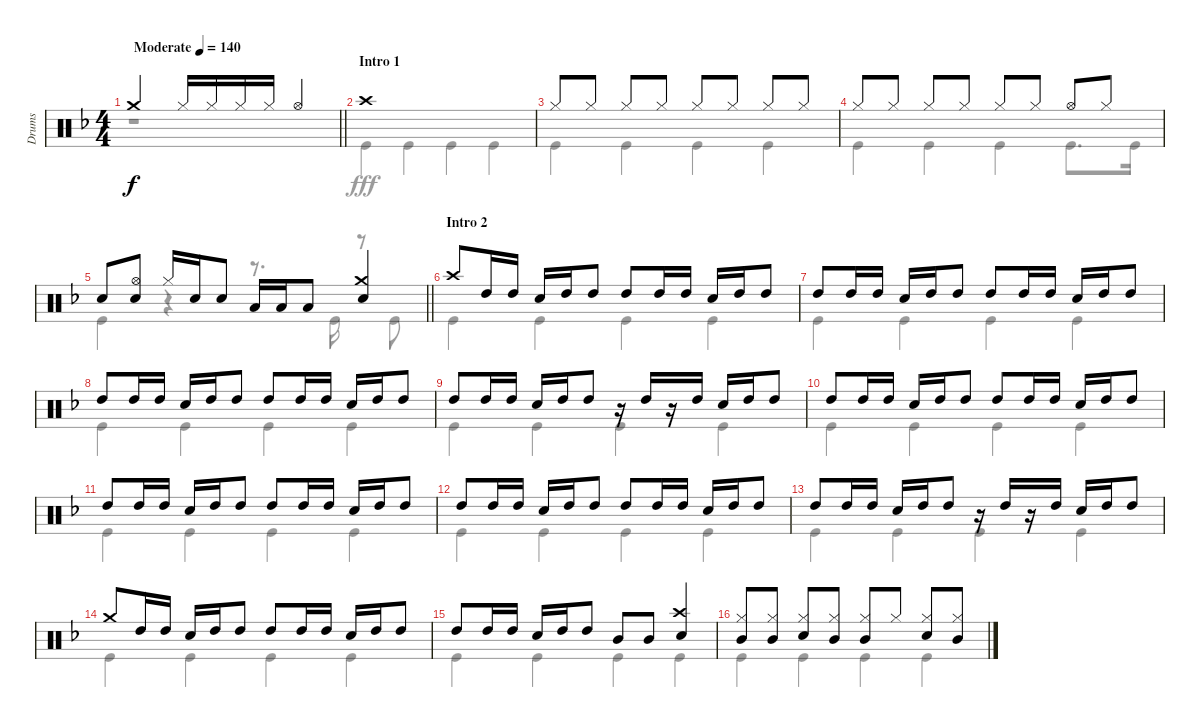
\track ("Drums" "Drums") {instrument percussion}
\staff {score}
\articulation defaults
\voice
\ts (4 4)
\tempo (140 "Moderate")
\clef neutral
\barLineRight lightlight
\ks f "Crash medium (hit)".2{dy f} "Hi-Hat (closed)".16 "Hi-Hat (closed)".16 "Hi-Hat (closed)".16 "Hi-Hat (closed)".16 "Hi-Hat (open)".4
|
\section ("" "Intro 1")
"Crash high (hit)".1 |
"Hi-Hat (closed)".8 "Hi-Hat (closed)".8 "Hi-Hat (closed)".8 "Hi-Hat (closed)".8 "Hi-Hat (closed)".8 "Hi-Hat (closed)".8 "Hi-Hat (closed)".8 "Hi-Hat (closed)".8 |
"Hi-Hat (closed)".8 "Hi-Hat (closed)".8 "Hi-Hat (closed)".8 "Hi-Hat (closed)".8 "Hi-Hat (closed)".8 "Hi-Hat (closed)".8 "Hi-Hat (open)".8 "Hi-Hat (closed)".8 |
\barLineRight lightlight "Snare (hit) 2".8
("Hi-Hat (open)" "Snare (hit) 2").8 "Hi-Hat (closed)".16 "Snare (hit) 2".16 "Snare (hit) 2".8 "Low Tom (hit)".16 "Low Tom (hit)".16 "Low Tom (hit)".8 ("Crash medium (hit)" "Snare (hit) 2").4 |
\section ("" "Intro 2")
"Crash high (hit)".8 "High Tom (hit)".16 "High Tom (hit)".16 "Snare (hit) 2".16 "High Tom (hit)".16 "High Tom (hit)".8 "High Tom (hit)".8 "High Tom (hit)".16 "High Tom (hit)".16 "Snare (hit) 2".16 "High Tom (hit)".16 "High Tom (hit)".8 |
"High Tom (hit)".8 "High Tom (hit)".16 "High Tom (hit)".16 "Snare (hit) 2".16 "High Tom (hit)".16 "High Tom (hit)".8 "High Tom (hit)".8 "High Tom (hit)".16 "High Tom (hit)".16 "Snare (hit) 2".16 "High Tom (hit)".16 "High Tom (hit)".8 |
"High Tom (hit)".8 "High Tom (hit)".16 "High Tom (hit)".16 "Snare (hit) 2".16 "High Tom (hit)".16 "High Tom (hit)".8 "High Tom (hit)".8 "High Tom (hit)".16 "High Tom (hit)".16 "Snare (hit) 2".16 "High Tom (hit)".16 "High Tom (hit)".8 |
"High Tom (hit)".8 "High Tom (hit)".16 "High Tom (hit)".16 "Snare (hit) 2".16 "High Tom (hit)".16 "High Tom (hit)".8 r.16 "High Tom (hit)".16 r.16 "High Tom (hit)".16 "Snare (hit) 2".16 "High Tom (hit)".16 "High Tom (hit)".8 |
"High Tom (hit)".8 "High Tom (hit)".16 "High Tom (hit)".16 "Snare (hit) 2".16 "High Tom (hit)".16 "High Tom (hit)".8 "High Tom (hit)".8 "High Tom (hit)".16 "High Tom (hit)".16 "Snare (hit) 2".16 "High Tom (hit)".16 "High Tom (hit)".8 |
"High Tom (hit)".8 "High Tom (hit)".16 "High Tom (hit)".16 "Snare (hit) 2".16 "High Tom (hit)".16 "High Tom (hit)".8 "High Tom (hit)".8 "High Tom (hit)".16 "High Tom (hit)".16 "Snare (hit) 2".16 "High Tom (hit)".16 "High Tom (hit)".8 |
"High Tom (hit)".8 "High Tom (hit)".16 "High Tom (hit)".16 "Snare (hit) 2".16 "High Tom (hit)".16 "High Tom (hit)".8 "High Tom (hit)".8 "High Tom (hit)".16 "High Tom (hit)".16 "Snare (hit) 2".16 "High Tom (hit)".16 "High Tom (hit)".8 |
"High Tom (hit)".8 "High Tom (hit)".16 "High Tom (hit)".16 "Snare (hit) 2".16 "High Tom (hit)".16 "High Tom (hit)".8 r.16 "High Tom (hit)".16 r.16 "High Tom (hit)".16 "Snare (hit) 2".16 "High Tom (hit)".16 "High Tom (hit)".8 |
"Crash medium (hit)".8 "High Tom (hit)".16 "High Tom (hit)".16 "Snare (hit) 2".16 "High Tom (hit)".16 "High Tom (hit)".8 "High Tom (hit)".8 "High Tom (hit)".16 "High Tom (hit)".16 "Snare (hit) 2".16 "High Tom (hit)".16 "High Tom (hit)".8 |
"High Tom (hit)".8 "High Tom (hit)".16 "High Tom (hit)".16 "Snare (hit) 2".16 "High Tom (hit)".16 "High Tom (hit)".8 "Mid Tom (hit)".8 "Mid Tom (hit)".8 ("Crash high (hit)" "Snare (hit) 2").4 |
("Hi-Hat (closed)" "Mid Tom (hit)").8 ("Hi-Hat (closed)" "Mid Tom (hit)").8 ("Hi-Hat (closed)" "Snare (hit) 2").8 ("Hi-Hat (closed)" "Mid Tom (hit)").8 ("Hi-Hat (closed)" "Mid Tom (hit)").8 "Hi-Hat (closed)".8 ("Hi-Hat (closed)" "Snare (hit) 2").8 ("Hi-Hat (closed)" "Mid Tom (hit)").8
\voice
\clef neutral
\ottava regular
\simile none
\barLineRight lightlight
\ks f
r.1{dy fff} |
"Kick (hit)".4 "Kick (hit)".4 "Kick (hit)".4 "Kick (hit)".4 |
"Kick (hit)".4 "Kick (hit)".4 "Kick (hit)".4 "Kick (hit)".4 |
"Kick (hit)".4 "Kick (hit)".4 "Kick (hit)".4 "Kick (hit)".8{d} "Kick (hit)".16 |
\barLineRight lightlight "Kick (hit)".4
r.4 r.8{d} "Kick (hit)".16 r.8 "Kick (hit)".8 |
"Kick (hit)".4 "Kick (hit)".4 "Kick (hit)".4 "Kick (hit)".4 |
"Kick (hit)".4 "Kick (hit)".4 "Kick (hit)".4 "Kick (hit)".4 |
"Kick (hit)".4 "Kick (hit)".4 "Kick (hit)".4 "Kick (hit)".4 |
"Kick (hit)".4 "Kick (hit)".4 "Kick (hit)".4 "Kick (hit)".4 |
"Kick (hit)".4 "Kick (hit)".4 "Kick (hit)".4 "Kick (hit)".4 |
"Kick (hit)".4 "Kick (hit)".4 "Kick (hit)".4 "Kick (hit)".4 |
"Kick (hit)".4 "Kick (hit)".4 "Kick (hit)".4 "Kick (hit)".4 |
"Kick (hit)".4 "Kick (hit)".4 "Kick (hit)".4 "Kick (hit)".4 |
"Kick (hit)".4 "Kick (hit)".4 "Kick (hit)".4 "Kick (hit)".4 |
"Kick (hit)".4 "Kick (hit)".4 "Kick (hit)".4 "Kick (hit)".4 |
"Kick (hit)".4 "Kick (hit)".4 "Kick (hit)".4 "Kick (hit)".4
